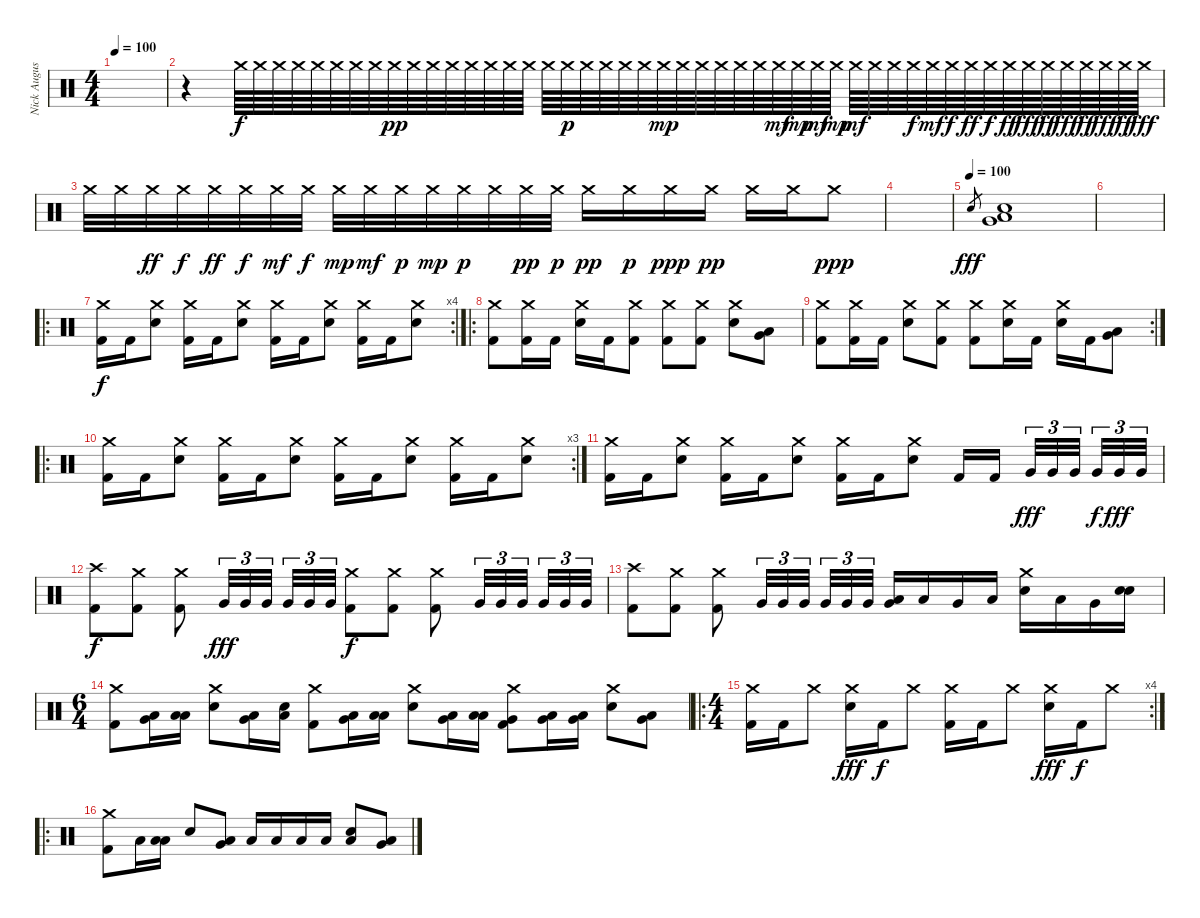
\track ("Nick Augusto" "Nick Augus") {instrument percussion}
\staff {score}
\articulation defaults
\ts (4 4)
\tempo 100
\tempo 65
\tempo 100
\clef neutral
\ks c
|
r.4 "Crash medium (hit)".64 "Crash medium (hit)".64 "Crash medium (hit)".64 "Crash medium (hit)".64 "Crash medium (hit)".64 "Crash medium (hit)".64 "Crash medium (hit)".64 "Crash medium (hit)".64 "Crash medium (hit)".64{dy pp} "Crash medium (hit)".64 "Crash medium (hit)".64 "Crash medium (hit)".64 "Crash medium (hit)".64 "Crash medium (hit)".64 "Crash medium (hit)".64 "Crash medium (hit)".64 "Crash medium (hit)".64 "Crash medium (hit)".64{dy p} "Crash medium (hit)".64 "Crash medium (hit)".64 "Crash medium (hit)".64 "Crash medium (hit)".64 "Crash medium (hit)".64{dy mp} "Crash medium (hit)".64 "Crash medium (hit)".64 "Crash medium (hit)".64 "Crash medium (hit)".64 "Crash medium (hit)".64 "Crash medium (hit)".64{dy mf} "Crash medium (hit)".64{dy mp} "Crash medium (hit)".64{dy mf} "Crash medium (hit)".64{dy mp} "Crash medium (hit)".64{dy mf} "Crash medium (hit)".64 "Crash medium (hit)".64 "Crash medium (hit)".64{dy f} "Crash medium (hit)".64{dy mf} "Crash medium (hit)".64{dy f} "Crash medium (hit)".64{dy ff} "Crash medium (hit)".64{dy f} "Crash medium (hit)".64{dy ff} "Crash medium (hit)".64{dy fff} "Crash medium (hit)".64{dy ff} "Crash medium (hit)".64{dy fff} "Crash medium (hit)".64{dy ff} "Crash medium (hit)".64{dy fff} "Crash medium (hit)".64{dy ff} "Crash medium (hit)".64{dy fff} |
"Crash medium (hit)".32 "Crash medium (hit)".32 "Crash medium (hit)".32{dy ff} "Crash medium (hit)".32{dy f} "Crash medium (hit)".32{dy ff} "Crash medium (hit)".32{dy f} "Crash medium (hit)".32{dy mf} "Crash medium (hit)".32{dy f} "Crash medium (hit)".32{dy mp} "Crash medium (hit)".32{dy mf} "Crash medium (hit)".32{dy p} "Crash medium (hit)".32{dy mp} "Crash medium (hit)".32{dy p} "Crash medium (hit)".32 "Crash medium (hit)".32{dy pp} "Crash medium (hit)".32{dy p} "Crash medium (hit)".16{dy pp} "Crash medium (hit)".16{dy p} "Crash medium (hit)".16{dy ppp} "Crash medium (hit)".16{dy pp} "Crash medium (hit)".16 "Crash medium (hit)".16 "Crash medium (hit)".8{dy ppp} |
|
\tempo (100)
"Electric Snare (hit)".8{gr dy fff} ("Very Low Tom (hit)" "Electric Snare (hit)" "Low Floor Tom (hit)").1 |
|
\ro
\rc 4
("Crash medium (hit)" "Kick (hit) 2").16{dy f} "Kick (hit) 2".16 ("Crash medium (hit)" "Electric Snare (hit)").8 ("Crash medium (hit)" "Kick (hit) 2").16 "Kick (hit) 2".16 ("Crash medium (hit)" "Electric Snare (hit)").8 ("Crash medium (hit)" "Kick (hit) 2").16 "Kick (hit) 2".16 ("Crash medium (hit)" "Electric Snare (hit)").8 ("Crash medium (hit)" "Kick (hit) 2").16 "Kick (hit) 2".16 ("Crash medium (hit)" "Electric Snare (hit)").8 |
\ro
("Kick (hit) 2" "Crash medium (hit)").8 ("Crash medium (hit)" "Kick (hit) 2").16 "Kick (hit) 2".16 ("Crash medium (hit)" "Electric Snare (hit)").16 "Kick (hit) 2".16 ("Crash medium (hit)" "Kick (hit) 2").8 ("Crash medium (hit)" "Kick (hit) 2").8 ("Crash medium (hit)" "Kick (hit) 2").8 ("Crash medium (hit)" "Electric Snare (hit)").8 ("Very Low Tom (hit)" "Low Tom (hit)").8 |
\rc 2
("Kick (hit) 2" "Crash medium (hit)").8 ("Crash medium (hit)" "Kick (hit) 2").16 "Kick (hit) 2".16 ("Crash medium (hit)" "Electric Snare (hit)").8 ("Crash medium (hit)" "Kick (hit) 2").8 ("Crash medium (hit)" "Kick (hit) 2").8 ("Crash medium (hit)" "Electric Snare (hit)").16 "Kick (hit) 2".16 ("Crash medium (hit)" "Electric Snare (hit)").16 "Kick (hit) 2".16 ("Very Low Tom (hit)" "Low Tom (hit)").8 |
\ro
\rc 3
("Crash medium (hit)" "Kick (hit) 2").16 "Kick (hit) 2".16 ("Crash medium (hit)" "Electric Snare (hit)").8 ("Crash medium (hit)" "Kick (hit) 2").16 "Kick (hit) 2".16 ("Crash medium (hit)" "Electric Snare (hit)").8 ("Crash medium (hit)" "Kick (hit) 2").16 "Kick (hit) 2".16 ("Crash medium (hit)" "Electric Snare (hit)").8 ("Crash medium (hit)" "Kick (hit) 2").16 "Kick (hit) 2".16 ("Crash medium (hit)" "Electric Snare (hit)").8 |
("Crash medium (hit)" "Kick (hit) 2").16 "Kick (hit) 2".16 ("Crash medium (hit)" "Electric Snare (hit)").8 ("Crash medium (hit)" "Kick (hit) 2").16 "Kick (hit) 2".16 ("Crash medium (hit)" "Electric Snare (hit)").8 ("Crash medium (hit)" "Kick (hit) 2").16 "Kick (hit) 2".16 ("Crash medium (hit)" "Electric Snare (hit)").8 "Kick (hit) 2".16 "Kick (hit) 2".16{beam splitsecondary} "Very Low Tom (hit)".32{tu (3 2) dy fff} "Very Low Tom (hit)".32{tu (3 2)} "Very Low Tom (hit)".32{tu (3 2) beam splitsecondary} "Very Low Tom (hit)".32{tu (3 2) dy f} "Very Low Tom (hit)".32{tu (3 2) dy fff} "Very Low Tom (hit)".32{tu (3 2)} |
("Crash high (hit)" "Kick (hit) 2").8{dy f} ("Crash medium (hit)" "Kick (hit) 2").8 ("Crash medium (hit)" "Kick (hit) 2").8 "Very Low Tom (hit)".32{tu (3 2) dy fff} "Very Low Tom (hit)".32{tu (3 2)} "Very Low Tom (hit)".32{tu (3 2) beam splitsecondary} "Very Low Tom (hit)".32{tu (3 2)} "Very Low Tom (hit)".32{tu (3 2)} "Very Low Tom (hit)".32{tu (3 2)} ("Crash medium (hit)" "Kick (hit) 2").8{dy f} ("Crash medium (hit)" "Kick (hit) 2").8 ("Crash medium (hit)" "Kick (hit) 2").8 "Very Low Tom (hit)".32{tu (3 2)} "Very Low Tom (hit)".32{tu (3 2)} "Very Low Tom (hit)".32{tu (3 2) beam splitsecondary} "Very Low Tom (hit)".32{tu (3 2)} "Very Low Tom (hit)".32{tu (3 2)} "Very Low Tom (hit)".32{tu (3 2)} |
("Crash high (hit)" "Kick (hit) 2").8 ("Crash medium (hit)" "Kick (hit) 2").8 ("Crash medium (hit)" "Kick (hit) 2").8 "Very Low Tom (hit)".32{tu (3 2)} "Very Low Tom (hit)".32{tu (3 2)} "Very Low Tom (hit)".32{tu (3 2) beam splitsecondary} "Very Low Tom (hit)".32{tu (3 2)} "Very Low Tom (hit)".32{tu (3 2)} "Very Low Tom (hit)".32{tu (3 2)} ("Very Low Tom (hit)" "Low Tom (hit)").16 "Low Tom (hit)".16 "Very Low Tom (hit)".16 "Low Tom (hit)".16 ("Electric Snare (hit)" "Crash medium (hit)").16 "Low Tom (hit)".16 "Very Low Tom (hit)".16 ("Electric Snare (hit)" "Electric Snare (hit)").16 |
\ts (6 4)
("Kick (hit) 2" "Crash medium (hit)").8 ("Low Tom (hit)" "Very Low Tom (hit)").16 ("Low Tom (hit)" "Low Tom (hit)").16 ("Electric Snare (hit)" "Crash medium (hit)").8 ("Low Tom (hit)" "Very Low Tom (hit)").16 ("Low Tom (hit)" "Electric Snare (hit)").16 ("Crash medium (hit)" "Kick (hit) 2").8 ("Low Tom (hit)" "Very Low Tom (hit)").16 ("Low Tom (hit)" "Low Tom (hit)").16 ("Electric Snare (hit)" "Crash medium (hit)").8 ("Low Tom (hit)" "Very Low Tom (hit)").16 ("Low Tom (hit)" "Low Tom (hit)").16 ("Crash medium (hit)" "Very Low Tom (hit)" "Kick (hit) 2").8 ("Low Tom (hit)" "Very Low Tom (hit)").16 ("Low Tom (hit)" "Very Low Tom (hit)").16 ("Electric Snare (hit)" "Crash medium (hit)").8 ("Very Low Tom (hit)" "Low Tom (hit)").8 |
\ro
\rc 4
\ts (4 4)
("Crash medium (hit)" "Kick (hit) 2").16 "Kick (hit) 2".16 "Crash medium (hit)".8 ("Crash medium (hit)" "Electric Snare (hit)").16{dy fff} "Kick (hit) 2".16{dy f} "Crash medium (hit)".8 ("Crash medium (hit)" "Kick (hit) 2").16 "Kick (hit) 2".16 "Crash medium (hit)".8 ("Crash medium (hit)" "Electric Snare (hit)").16{dy fff} "Kick (hit) 2".16{dy f} "Crash medium (hit)".8 |
\ro
("Kick (hit) 2" "Crash medium (hit)").8 "Low Tom (hit)".16 ("Low Tom (hit)" "Low Tom (hit)").16 "Electric Snare (hit)".8 ("Very Low Tom (hit)" "Low Tom (hit)").8 "Low Tom (hit)".16 "Low Tom (hit)".16 "Low Tom (hit)".16 "Low Tom (hit)".16 ("Electric Snare (hit)" "Low Tom (hit)").8 ("Low Tom (hit)" "Very Low Tom (hit)").8
